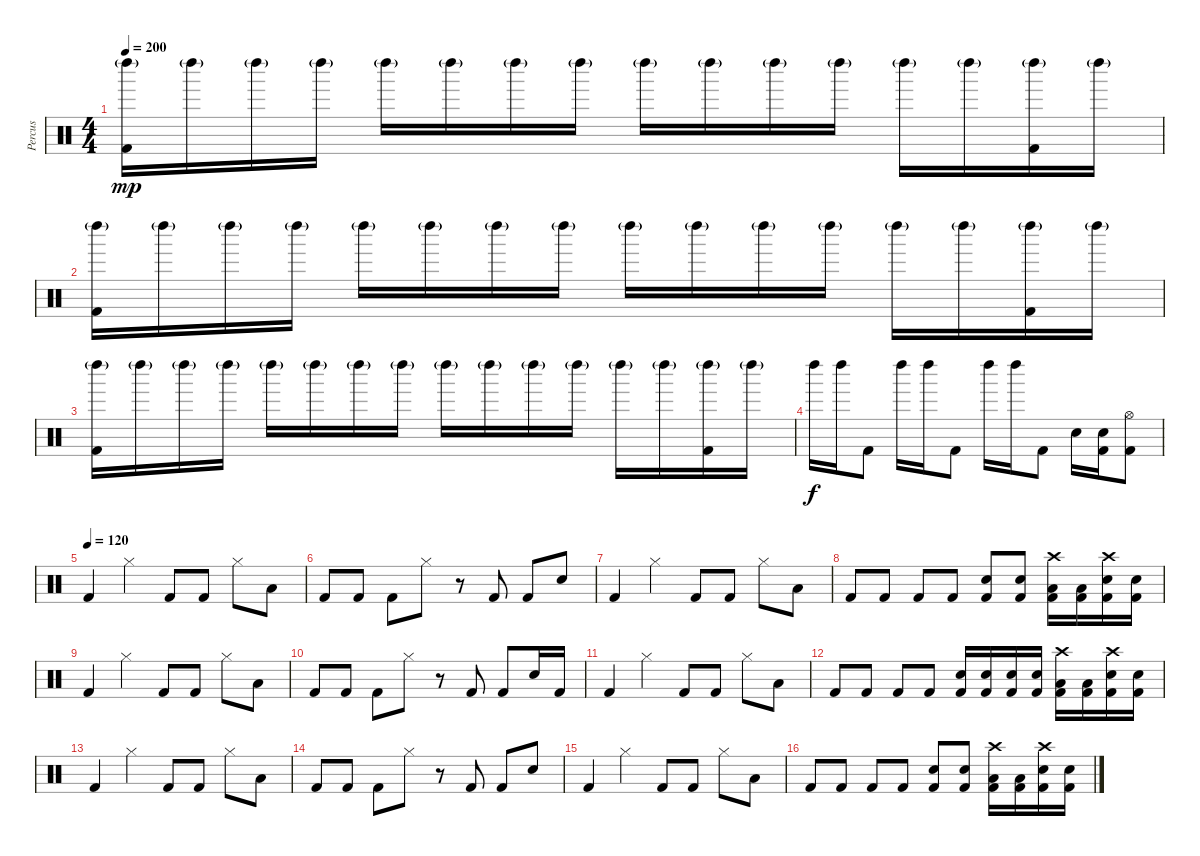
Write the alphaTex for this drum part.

\track ("Percus" "Percus") {instrument percussion}
\staff {score}
\articulation defaults
\ts (4 4)
\tempo 200
\tempo 120
\tempo 200
\clef neutral
\ks c
("Left Maraca (hit)"{g} "Kick (hit) 2").16{dy mp} "Left Maraca (hit)"{g}.16 "Left Maraca (hit)"{g}.16 "Left Maraca (hit)"{g}.16 "Left Maraca (hit)"{g}.16 "Left Maraca (hit)"{g}.16 "Left Maraca (hit)"{g}.16 "Left Maraca (hit)"{g}.16 "Left Maraca (hit)"{g}.16 "Left Maraca (hit)"{g}.16 "Left Maraca (hit)"{g}.16 "Left Maraca (hit)"{g}.16 "Left Maraca (hit)"{g}.16 "Left Maraca (hit)"{g}.16 ("Left Maraca (hit)"{g} "Kick (hit) 2").16 "Left Maraca (hit)"{g}.16 |
("Left Maraca (hit)"{g} "Kick (hit) 2").16 "Left Maraca (hit)"{g}.16 "Left Maraca (hit)"{g}.16 "Left Maraca (hit)"{g}.16 "Left Maraca (hit)"{g}.16 "Left Maraca (hit)"{g}.16 "Left Maraca (hit)"{g}.16 "Left Maraca (hit)"{g}.16 "Left Maraca (hit)"{g}.16 "Left Maraca (hit)"{g}.16 "Left Maraca (hit)"{g}.16 "Left Maraca (hit)"{g}.16 "Left Maraca (hit)"{g}.16 "Left Maraca (hit)"{g}.16 ("Left Maraca (hit)"{g} "Kick (hit) 2").16 "Left Maraca (hit)"{g}.16 |
("Left Maraca (hit)"{g} "Kick (hit) 2").16 "Left Maraca (hit)"{g}.16 "Left Maraca (hit)"{g}.16 "Left Maraca (hit)"{g}.16 "Left Maraca (hit)"{g}.16 "Left Maraca (hit)"{g}.16 "Left Maraca (hit)"{g}.16 "Left Maraca (hit)"{g}.16 "Left Maraca (hit)"{g}.16 "Left Maraca (hit)"{g}.16 "Left Maraca (hit)"{g}.16 "Left Maraca (hit)"{g}.16 "Left Maraca (hit)"{g}.16 "Left Maraca (hit)"{g}.16 ("Left Maraca (hit)"{g} "Kick (hit) 2").16 "Left Maraca (hit)"{g}.16 |
"Left Maraca (hit)".16{dy f} "Left Maraca (hit)".16 "Kick (hit) 2".8 "Left Maraca (hit)".16 "Left Maraca (hit)".16 "Kick (hit) 2".8 "Left Maraca (hit)".16 "Left Maraca (hit)".16 "Kick (hit) 2".8 "Hand Clap (hit)".16 ("Hand Clap (hit)" "Kick (hit) 2").16 ("Hi-Hat (open)" "Kick (hit) 2").8 |
\tempo (120)
"Kick (hit) 2".4 "Hi-Hat (closed)".4 "Kick (hit) 2".8 "Kick (hit) 2".8 "Hi-Hat (closed)".8 "Low Tom (hit)".8 |
"Kick (hit) 2".8 "Kick (hit) 2".8 "Kick (hit) 2".8 "Hi-Hat (closed)".8 r.8 "Kick (hit) 2".8 "Kick (hit) 2".8 "Snare (hit) 2".8 |
"Kick (hit) 2".4 "Hi-Hat (closed)".4 "Kick (hit) 2".8 "Kick (hit) 2".8 "Hi-Hat (closed)".8 "Low Tom (hit)".8 |
"Kick (hit) 2".8 "Kick (hit) 2".8 "Kick (hit) 2".8 "Kick (hit) 2".8 ("Snare (hit) 2" "Kick (hit) 2").8 ("Snare (hit) 2" "Kick (hit) 2").8 ("Crash high (hit)" "Low Tom (hit)" "Kick (hit) 2").16 ("Low Tom (hit)" "Kick (hit) 2").16 ("Crash high (hit)" "Snare (hit) 2" "Kick (hit) 2").16 ("Snare (hit) 2" "Kick (hit) 2").16 |
"Kick (hit) 2".4 "Hi-Hat (closed)".4 "Kick (hit) 2".8 "Kick (hit) 2".8 "Hi-Hat (closed)".8 "Low Tom (hit)".8 |
"Kick (hit) 2".8 "Kick (hit) 2".8 "Kick (hit) 2".8 "Hi-Hat (closed)".8 r.8 "Kick (hit) 2".8 "Kick (hit) 2".8 "Snare (hit) 2".16 "Kick (hit) 2".16 |
"Kick (hit) 2".4 "Hi-Hat (closed)".4 "Kick (hit) 2".8 "Kick (hit) 2".8 "Hi-Hat (closed)".8 "Low Tom (hit)".8 |
"Kick (hit) 2".8 "Kick (hit) 2".8 "Kick (hit) 2".8 "Kick (hit) 2".8 ("Snare (hit) 2" "Kick (hit) 2").16 ("Snare (hit) 2" "Kick (hit) 2").16 ("Snare (hit) 2" "Kick (hit) 2").16 ("Snare (hit) 2" "Kick (hit) 2").16 ("Crash high (hit)" "Low Tom (hit)" "Kick (hit) 2").16 ("Low Tom (hit)" "Kick (hit) 2").16 ("Crash high (hit)" "Snare (hit) 2" "Kick (hit) 2").16 ("Snare (hit) 2" "Kick (hit) 2").16 |
"Kick (hit) 2".4 "Hi-Hat (closed)".4 "Kick (hit) 2".8 "Kick (hit) 2".8 "Hi-Hat (closed)".8 "Low Tom (hit)".8 |
"Kick (hit) 2".8 "Kick (hit) 2".8 "Kick (hit) 2".8 "Hi-Hat (closed)".8 r.8 "Kick (hit) 2".8 "Kick (hit) 2".8 "Snare (hit) 2".8 |
"Kick (hit) 2".4 "Hi-Hat (closed)".4 "Kick (hit) 2".8 "Kick (hit) 2".8 "Hi-Hat (closed)".8 "Low Tom (hit)".8 |
"Kick (hit) 2".8 "Kick (hit) 2".8 "Kick (hit) 2".8 "Kick (hit) 2".8 ("Snare (hit) 2" "Kick (hit) 2").8 ("Snare (hit) 2" "Kick (hit) 2").8 ("Crash high (hit)" "Low Tom (hit)" "Kick (hit) 2").16 ("Low Tom (hit)" "Kick (hit) 2").16 ("Crash high (hit)" "Snare (hit) 2" "Kick (hit) 2").16 ("Snare (hit) 2" "Kick (hit) 2").16
